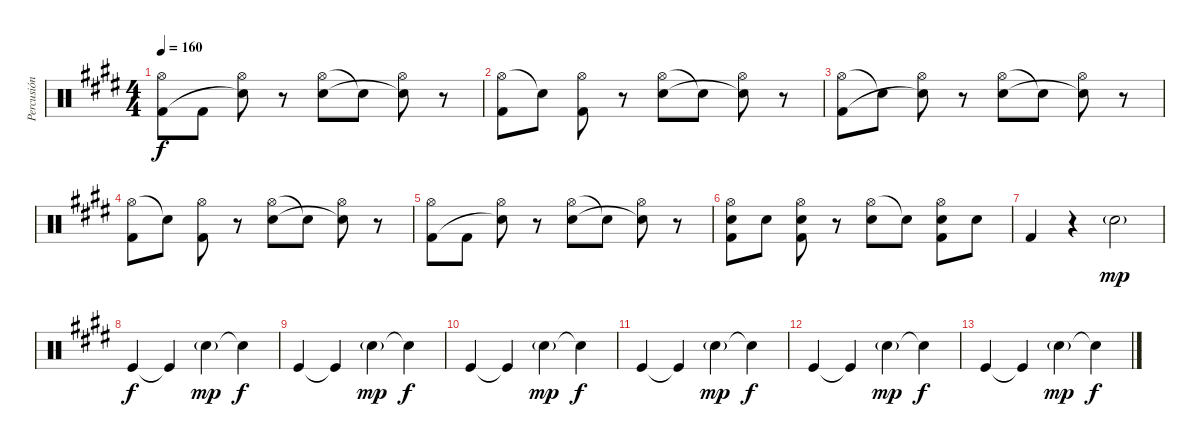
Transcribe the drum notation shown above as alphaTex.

\track ("Percusión" "Percusión") {instrument percussion}
\staff {score}
\articulation defaults
\ts (4 4)
\tempo 160
\clef neutral
\ks e
("Hi-Hat (open)" "Kick (hit) 2").8{dy f} "Kick (hit) 2".8 ("Hi-Hat (open)" "Snare (hit) 2"{t}).8 r.8 ("Hi-Hat (open)" "Electric Snare (hit)").8 "Snare (hit) 2"{t}.8 ("Hi-Hat (open)" "Snare (hit) 2"{t}).8 r.8 |
("Hi-Hat (open)" "Kick (hit) 2").8 "Snare (hit) 2"{t}.8 ("Hi-Hat (open)" "Kick (hit) 2").8 r.8 ("Hi-Hat (open)" "Electric Snare (hit)").8 "Snare (hit) 2"{t}.8 ("Hi-Hat (open)" "Snare (hit) 2"{t}).8 r.8 |
("Hi-Hat (open)" "Kick (hit) 2").8 "Snare (hit) 2"{t}.8 ("Hi-Hat (open)" "Snare (hit) 2"{t}).8 r.8 ("Hi-Hat (open)" "Electric Snare (hit)").8 "Snare (hit) 2"{t}.8 ("Hi-Hat (open)" "Snare (hit) 2"{t}).8 r.8 |
("Hi-Hat (open)" "Kick (hit) 2").8 "Snare (hit) 2"{t}.8 ("Hi-Hat (open)" "Kick (hit) 2").8 r.8 ("Hi-Hat (open)" "Electric Snare (hit)").8 "Snare (hit) 2"{t}.8 ("Hi-Hat (open)" "Snare (hit) 2"{t}).8 r.8 |
("Hi-Hat (open)" "Kick (hit) 2").8 "Kick (hit) 2".8 ("Hi-Hat (open)" "Snare (hit) 2"{t}).8 r.8 ("Hi-Hat (open)" "Electric Snare (hit)").8 "Snare (hit) 2"{t}.8 ("Hi-Hat (open)" "Snare (hit) 2"{t}).8 r.8 |
("Hi-Hat (open)" "Kick (hit) 2" "Electric Snare (hit)").8 "Electric Snare (hit)".8 ("Hi-Hat (open)" "Kick (hit) 2" "Electric Snare (hit)").8 r.8 ("Hi-Hat (open)" "Electric Snare (hit)").8 "Snare (hit) 2"{t}.8 ("Hi-Hat (open)" "Kick (hit) 2" "Electric Snare (hit)").8 "Electric Snare (hit)".8 |
"Kick (hit) 2".4 r.4 "Hand Clap (hit)"{g}.2{dy mp} |
"Kick (hit)".4{dy f} "Kick (hit)"{t}.4 "Hand Clap (hit)"{g}.4{dy mp} "Snare (hit)"{t}.4{dy f} |
"Kick (hit)".4 "Kick (hit)"{t}.4 "Hand Clap (hit)"{g}.4{dy mp} "Snare (hit)"{t}.4{dy f} |
"Kick (hit)".4 "Kick (hit)"{t}.4 "Hand Clap (hit)"{g}.4{dy mp} "Snare (hit)"{t}.4{dy f} |
"Kick (hit)".4 "Kick (hit)"{t}.4 "Hand Clap (hit)"{g}.4{dy mp} "Snare (hit)"{t}.4{dy f} |
"Kick (hit)".4 "Kick (hit)"{t}.4 "Hand Clap (hit)"{g}.4{dy mp} "Snare (hit)"{t}.4{dy f} |
"Kick (hit)".4 "Kick (hit)"{t}.4 "Hand Clap (hit)"{g}.4{dy mp} "Snare (hit)"{t}.4{dy f}
